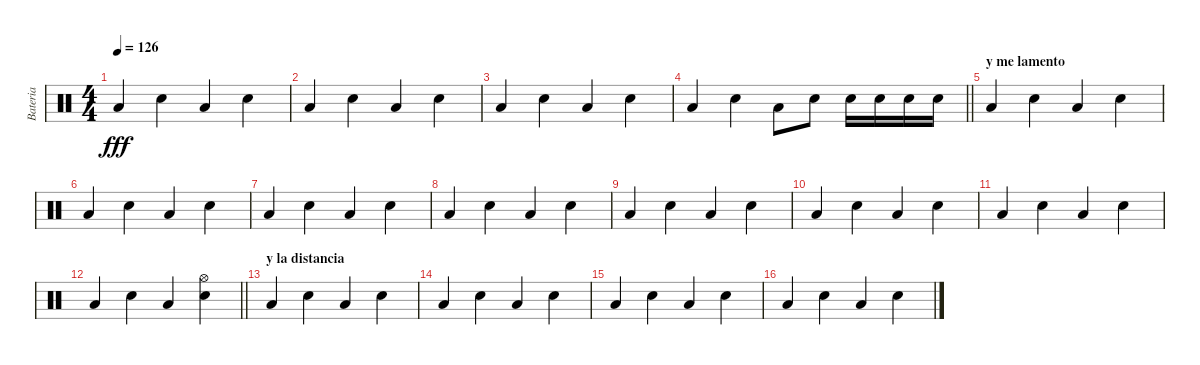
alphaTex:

\track ("Bateria" "Bateria") {instrument percussion}
\staff {score}
\articulation defaults
\ts (4 4)
\tempo 126
\clef neutral
\ks c "Low Floor Tom (hit)".4{dy fff} "Snare (hit) 2".4 "Low Floor Tom (hit)".4 "Snare (hit) 2".4
|
"Low Floor Tom (hit)".4 "Snare (hit) 2".4 "Low Floor Tom (hit)".4 "Snare (hit) 2".4 |
"Low Floor Tom (hit)".4 "Snare (hit) 2".4 "Low Floor Tom (hit)".4 "Snare (hit) 2".4 |
\barLineRight lightlight "Low Floor Tom (hit)".4 "Snare (hit) 2".4 "Low Floor Tom (hit)".8 "Snare (hit) 2".8 "Snare (hit) 2".16 "Snare (hit) 2".16 "Snare (hit) 2".16 "Snare (hit) 2".16
|
\section ("" "y me lamento")
"Low Floor Tom (hit)".4 "Snare (hit) 2".4 "Low Floor Tom (hit)".4 "Snare (hit) 2".4 |
"Low Floor Tom (hit)".4 "Snare (hit) 2".4 "Low Floor Tom (hit)".4 "Snare (hit) 2".4 |
"Low Floor Tom (hit)".4 "Snare (hit) 2".4 "Low Floor Tom (hit)".4 "Snare (hit) 2".4 |
"Low Floor Tom (hit)".4 "Snare (hit) 2".4 "Low Floor Tom (hit)".4 "Snare (hit) 2".4 |
"Low Floor Tom (hit)".4 "Snare (hit) 2".4 "Low Floor Tom (hit)".4 "Snare (hit) 2".4 |
"Low Floor Tom (hit)".4 "Snare (hit) 2".4 "Low Floor Tom (hit)".4 "Snare (hit) 2".4 |
"Low Floor Tom (hit)".4 "Snare (hit) 2".4 "Low Floor Tom (hit)".4 "Snare (hit) 2".4 |
\barLineRight lightlight "Low Floor Tom (hit)".4 "Snare (hit) 2".4 "Low Floor Tom (hit)".4
("Hi-Hat (open)" "Snare (hit) 2").4 |
\section ("" "y la distancia")
"Low Floor Tom (hit)".4 "Snare (hit) 2".4 "Low Floor Tom (hit)".4 "Snare (hit) 2".4 |
"Low Floor Tom (hit)".4 "Snare (hit) 2".4 "Low Floor Tom (hit)".4 "Snare (hit) 2".4 |
"Low Floor Tom (hit)".4 "Snare (hit) 2".4 "Low Floor Tom (hit)".4 "Snare (hit) 2".4 |
"Low Floor Tom (hit)".4 "Snare (hit) 2".4 "Low Floor Tom (hit)".4 "Snare (hit) 2".4
